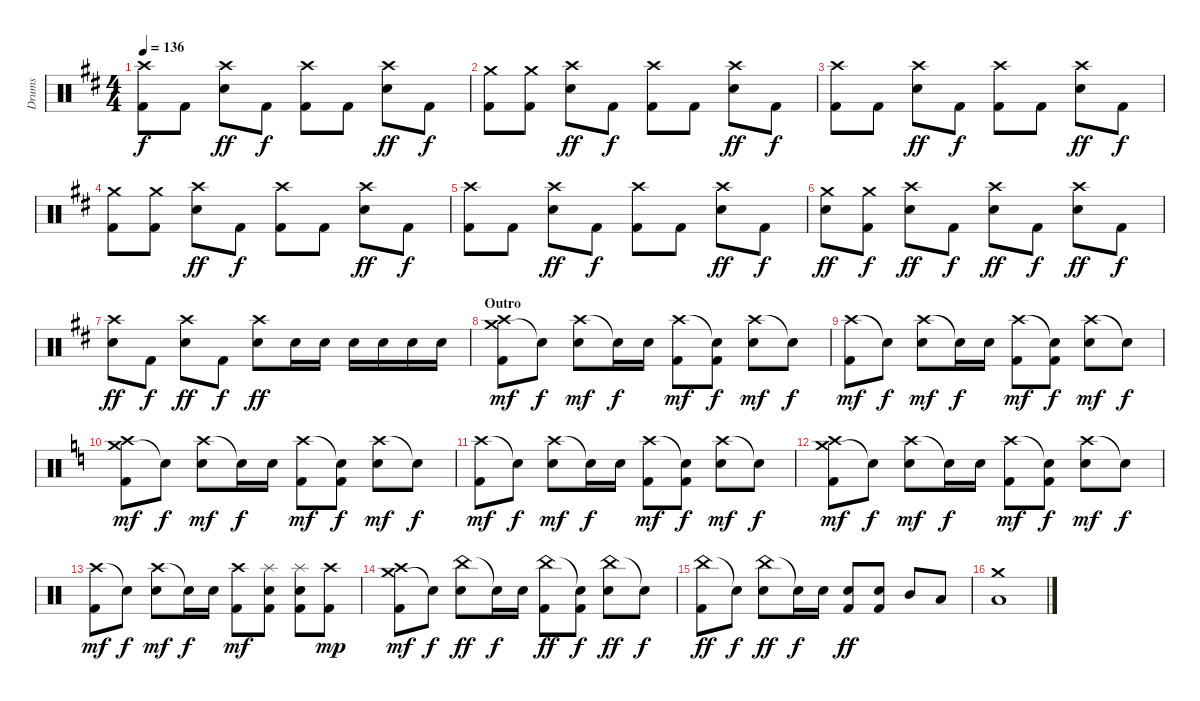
\track ("Drums" "Drums") {instrument percussion}
\staff {score}
\articulation defaults
\ts (4 4)
\tempo 136
\clef neutral
\ks d
("Crash high (hit)" "Kick (hit) 2").8{dy f} "Kick (hit) 2".8 ("Crash high (hit)" "Electric Snare (hit)").8{dy ff} "Kick (hit) 2".8{dy f} ("Crash high (hit)" "Kick (hit) 2").8 "Kick (hit) 2".8 ("Crash high (hit)" "Electric Snare (hit)").8{dy ff} "Kick (hit) 2".8{dy f} |
("Crash medium (hit)" "Kick (hit) 2").8 ("Crash medium (hit)" "Kick (hit) 2").8 ("Crash high (hit)" "Electric Snare (hit)").8{dy ff} "Kick (hit) 2".8{dy f} ("Crash high (hit)" "Kick (hit) 2").8 "Kick (hit) 2".8 ("Crash high (hit)" "Electric Snare (hit)").8{dy ff} "Kick (hit) 2".8{dy f} |
("Crash high (hit)" "Kick (hit) 2").8 "Kick (hit) 2".8 ("Crash high (hit)" "Electric Snare (hit)").8{dy ff} "Kick (hit) 2".8{dy f} ("Crash high (hit)" "Kick (hit) 2").8 "Kick (hit) 2".8 ("Crash high (hit)" "Electric Snare (hit)").8{dy ff} "Kick (hit) 2".8{dy f} |
("Crash medium (hit)" "Kick (hit) 2").8 ("Crash medium (hit)" "Kick (hit) 2").8 ("Crash high (hit)" "Electric Snare (hit)").8{dy ff} "Kick (hit) 2".8{dy f} ("Crash high (hit)" "Kick (hit) 2").8 "Kick (hit) 2".8 ("Crash high (hit)" "Electric Snare (hit)").8{dy ff} "Kick (hit) 2".8{dy f} |
("Crash high (hit)" "Kick (hit) 2").8 "Kick (hit) 2".8 ("Crash high (hit)" "Electric Snare (hit)").8{dy ff} "Kick (hit) 2".8{dy f} ("Crash high (hit)" "Kick (hit) 2").8 "Kick (hit) 2".8 ("Crash high (hit)" "Electric Snare (hit)").8{dy ff} "Kick (hit) 2".8{dy f} |
("Crash medium (hit)" "Electric Snare (hit)").8{dy ff} ("Crash medium (hit)" "Kick (hit) 2").8{dy f} ("Crash high (hit)" "Electric Snare (hit)").8{dy ff} "Kick (hit) 2".8{dy f} ("Crash high (hit)" "Electric Snare (hit)").8{dy ff} "Kick (hit) 2".8{dy f} ("Crash high (hit)" "Electric Snare (hit)").8{dy ff} "Kick (hit) 2".8{dy f} |
("Crash high (hit)" "Electric Snare (hit)").8{dy ff} "Kick (hit) 2".8{dy f} ("Crash high (hit)" "Electric Snare (hit)").8{dy ff} "Kick (hit) 2".8{dy f} ("Crash high (hit)" "Electric Snare (hit)").8{dy ff} "Electric Snare (hit)".16 "Electric Snare (hit)".16 "Electric Snare (hit)".16 "Electric Snare (hit)".16 "Electric Snare (hit)".16 "Electric Snare (hit)".16 |
\section ("" "Outro")
("Crash medium (hit)" "Crash high (hit)" "Kick (hit) 2").8{dy mf} "Snare (hit)"{t}.8{dy f} ("Crash high (hit)" "Electric Snare (hit)").8{dy mf} "Snare (hit)"{t}.16{dy f} "Electric Snare (hit)".16 ("Crash high (hit)" "Kick (hit) 2").8{dy mf} ("Snare (hit)"{t} "Kick (hit) 2").8{dy f} ("Crash high (hit)" "Electric Snare (hit)").8{dy mf} "Snare (hit)"{t}.8{dy f} |
("Crash high (hit)" "Kick (hit) 2").8{dy mf} "Snare (hit)"{t}.8{dy f} ("Crash high (hit)" "Electric Snare (hit)").8{dy mf} "Snare (hit)"{t}.16{dy f} "Electric Snare (hit)".16 ("Crash high (hit)" "Kick (hit) 2").8{dy mf} ("Snare (hit)"{t} "Kick (hit) 2").8{dy f} ("Crash high (hit)" "Electric Snare (hit)").8{dy mf} "Snare (hit)"{t}.8{dy f} |
\ks c
("Crash medium (hit)" "Crash high (hit)" "Kick (hit) 2").8{dy mf} "Snare (hit)"{t}.8{dy f} ("Crash high (hit)" "Electric Snare (hit)").8{dy mf} "Snare (hit)"{t}.16{dy f} "Electric Snare (hit)".16 ("Crash high (hit)" "Kick (hit) 2").8{dy mf} ("Snare (hit)"{t} "Kick (hit) 2").8{dy f} ("Crash high (hit)" "Electric Snare (hit)").8{dy mf} "Snare (hit)"{t}.8{dy f} |
("Crash high (hit)" "Kick (hit) 2").8{dy mf} "Snare (hit)"{t}.8{dy f} ("Crash high (hit)" "Electric Snare (hit)").8{dy mf} "Snare (hit)"{t}.16{dy f} "Electric Snare (hit)".16 ("Crash high (hit)" "Kick (hit) 2").8{dy mf} ("Snare (hit)"{t} "Kick (hit) 2").8{dy f} ("Crash high (hit)" "Electric Snare (hit)").8{dy mf} "Snare (hit)"{t}.8{dy f} |
("Crash medium (hit)" "Crash high (hit)" "Kick (hit) 2").8{dy mf} "Snare (hit)"{t}.8{dy f} ("Crash high (hit)" "Electric Snare (hit)").8{dy mf} "Snare (hit)"{t}.16{dy f} "Electric Snare (hit)".16 ("Crash high (hit)" "Kick (hit) 2").8{dy mf} ("Snare (hit)"{t} "Kick (hit) 2").8{dy f} ("Crash high (hit)" "Electric Snare (hit)").8{dy mf} "Snare (hit)"{t}.8{dy f} |
("Crash high (hit)" "Kick (hit) 2").8{dy mf} "Snare (hit)"{t}.8{dy f} ("Crash high (hit)" "Electric Snare (hit)").8{dy mf} "Snare (hit)"{t}.16{dy f} "Electric Snare (hit)".16 ("Crash high (hit)" "Kick (hit) 2").8{dy mf} ("Splash (hit)" "Electric Snare (hit)" "Kick (hit) 2").8 ("Splash (hit)" "Electric Snare (hit)" "Kick (hit) 2").8 ("Crash high (hit)" "Kick (hit) 2").8{dy mp} |
("Crash medium (hit)" "Crash high (hit)" "Kick (hit) 2").8{dy mf} "Snare (hit)"{t}.8{dy f} ("China (hit)" "Electric Snare (hit)").8{dy ff} "Snare (hit)"{t}.16{dy f} "Electric Snare (hit)".16 ("China (hit)" "Kick (hit) 2").8{dy ff} ("Snare (hit)"{t} "Kick (hit) 2").8{dy f} ("China (hit)" "Electric Snare (hit)").8{dy ff} "Snare (hit)"{t}.8{dy f} |
("China (hit)" "Kick (hit) 2").8{dy ff} "Snare (hit)"{t}.8{dy f} ("China (hit)" "Electric Snare (hit)").8{dy ff} "Snare (hit)"{t}.16{dy f} "Electric Snare (hit)".16 ("Electric Snare (hit)" "Kick (hit) 2").8{dy ff} ("Electric Snare (hit)" "Kick (hit) 2").8 "Mid Tom (hit)".8 "Low Tom (hit)".8 |
("Crash medium (hit)" "Low Floor Tom (hit)").1
